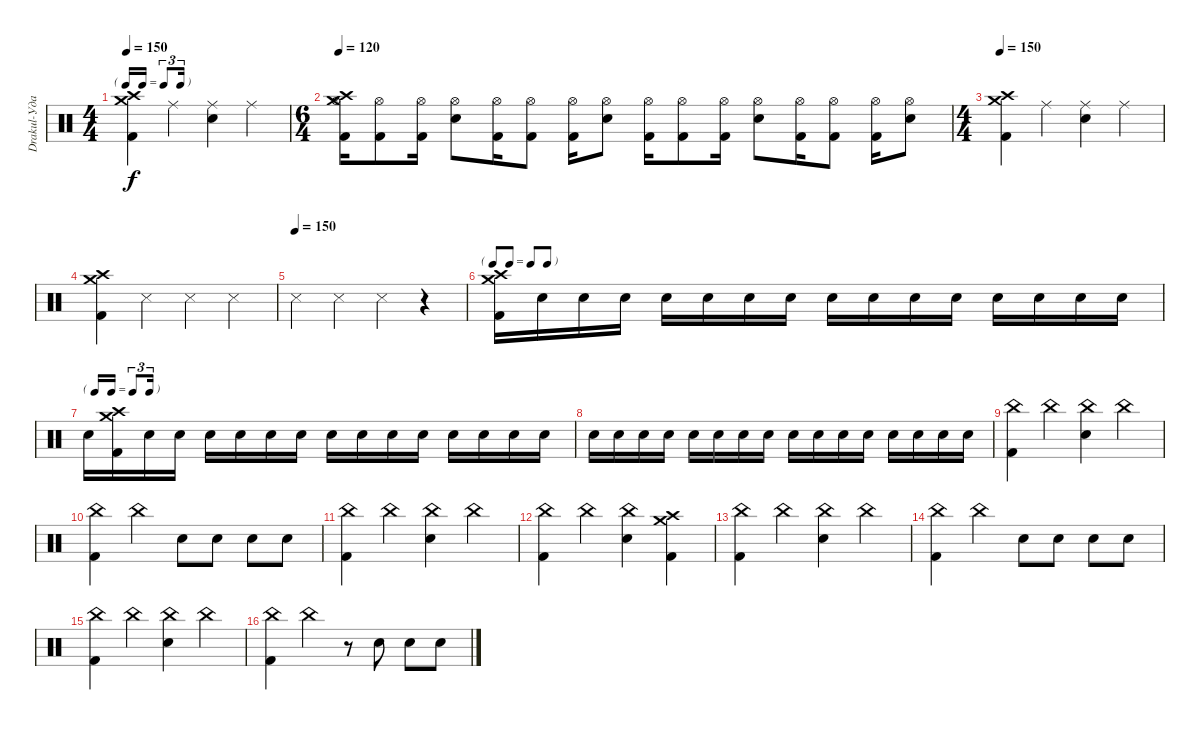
\track ("Drakul-Ударные " "Drakul-Уда") {instrument percussion}
\staff {score}
\articulation defaults
\ts (4 4)
\tf triplet16th
\tempo 150
\clef neutral
\ks c
("Kick (hit) 2" "Crash high (hit)" "Crash medium (hit)").4{dy f} "Ride (middle)".4 ("Electric Snare (hit)" "Ride (middle)").4 "Ride (middle)".4 |
\ts (6 4)
\tempo 120
("Kick (hit) 2" "Hi-Hat (open)" "Crash high (hit)" "Crash medium (hit)").16 ("Kick (hit) 2" "Hi-Hat (open)").8 ("Kick (hit) 2" "Hi-Hat (open)").16 ("Electric Snare (hit)" "Hi-Hat (open)").8 ("Kick (hit) 2" "Hi-Hat (open)").16 ("Kick (hit) 2" "Hi-Hat (open)").8 ("Kick (hit) 2" "Hi-Hat (open)").16 ("Electric Snare (hit)" "Hi-Hat (open)").8 ("Kick (hit) 2" "Hi-Hat (open)").16 ("Kick (hit) 2" "Hi-Hat (open)").8 ("Kick (hit) 2" "Hi-Hat (open)").16 ("Electric Snare (hit)" "Hi-Hat (open)").8 ("Kick (hit) 2" "Hi-Hat (open)").16 ("Kick (hit) 2" "Hi-Hat (open)").8 ("Kick (hit) 2" "Hi-Hat (open)").16 ("Electric Snare (hit)" "Hi-Hat (open)").8 |
\ts (4 4)
\tempo 150
("Kick (hit) 2" "Crash high (hit)" "Crash medium (hit)").4 "Ride (middle)".4 ("Electric Snare (hit)" "Ride (middle)").4 "Ride (middle)".4 |
("Kick (hit) 2" "Crash high (hit)" "Crash medium (hit)").4 "Snare (side stick) 3".4 "Snare (side stick) 3".4 "Snare (side stick) 3".4 |
\tempo (150)
"Snare (side stick) 3".4 "Snare (side stick) 3".4 "Snare (side stick) 3".4 r.4 |
\tf none
("Kick (hit) 2" "Crash high (hit)" "Crash medium (hit)").16 "Electric Snare (hit)".16{bd 60} "Electric Snare (hit)".16{bu 60} "Electric Snare (hit)".16{bd 60} "Electric Snare (hit)".16{bu 60} "Electric Snare (hit)".16{bd 60} "Electric Snare (hit)".16{bu 60} "Electric Snare (hit)".16 "Electric Snare (hit)".16 "Electric Snare (hit)".16 "Electric Snare (hit)".16 "Electric Snare (hit)".16 "Electric Snare (hit)".16 "Electric Snare (hit)".16 "Electric Snare (hit)".16 "Electric Snare (hit)".16 |
\tf triplet16th "Electric Snare (hit)".16
("Kick (hit) 2" "Crash high (hit)" "Crash medium (hit)").16 "Electric Snare (hit)".16 "Electric Snare (hit)".16 "Electric Snare (hit)".16 "Electric Snare (hit)".16 "Electric Snare (hit)".16 "Electric Snare (hit)".16 "Electric Snare (hit)".16 "Electric Snare (hit)".16 "Electric Snare (hit)".16 "Electric Snare (hit)".16 "Electric Snare (hit)".16 "Electric Snare (hit)".16 "Electric Snare (hit)".16 "Electric Snare (hit)".16 |
"Electric Snare (hit)".16 "Electric Snare (hit)".16 "Electric Snare (hit)".16 "Electric Snare (hit)".16 "Electric Snare (hit)".16 "Electric Snare (hit)".16 "Electric Snare (hit)".16 "Electric Snare (hit)".16 "Electric Snare (hit)".16 "Electric Snare (hit)".16 "Electric Snare (hit)".16 "Electric Snare (hit)".16 "Electric Snare (hit)".16 "Electric Snare (hit)".16 "Electric Snare (hit)".16 "Electric Snare (hit)".16 |
("Kick (hit) 2" "China (hit)").4 "China (hit)".4 ("Electric Snare (hit)" "China (hit)").4 "China (hit)".4 |
("Kick (hit) 2" "China (hit)").4 "China (hit)".4 "Electric Snare (hit)".8 "Electric Snare (hit)".8 "Electric Snare (hit)".8 "Electric Snare (hit)".8 |
("Kick (hit) 2" "China (hit)").4 "China (hit)".4 ("Electric Snare (hit)" "China (hit)").4 "China (hit)".4 |
("Kick (hit) 2" "China (hit)").4 "China (hit)".4 ("Electric Snare (hit)" "China (hit)").4 ("Kick (hit) 2" "Crash high (hit)" "Crash medium (hit)").4 |
("Kick (hit) 2" "China (hit)").4 "China (hit)".4 ("Electric Snare (hit)" "China (hit)").4 "China (hit)".4 |
("Kick (hit) 2" "China (hit)").4 "China (hit)".4 "Electric Snare (hit)".8 "Electric Snare (hit)".8 "Electric Snare (hit)".8 "Electric Snare (hit)".8 |
("Kick (hit) 2" "China (hit)").4 "China (hit)".4 ("Electric Snare (hit)" "China (hit)").4 "China (hit)".4 |
("Kick (hit) 2" "China (hit)").4 "China (hit)".4 r.8 "Electric Snare (hit)".8 "Electric Snare (hit)".8 "Electric Snare (hit)".8
